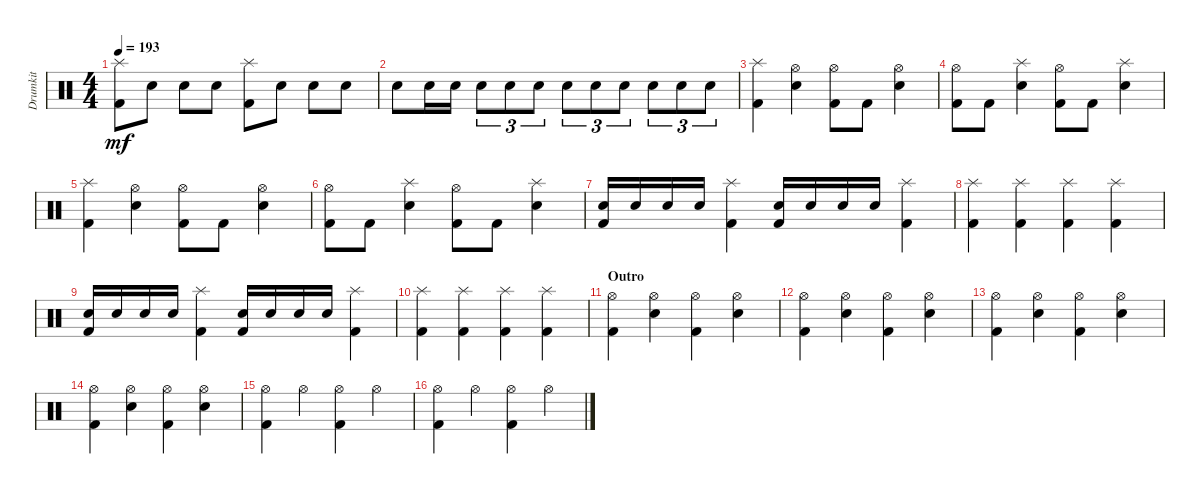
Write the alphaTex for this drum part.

\track ("Drumkit" "Drumkit") {instrument percussion}
\staff {score}
\articulation defaults
\ts (4 4)
\tempo 193
\clef neutral
\ks c
("Kick (hit) 2" "Splash (hit)").8{dy mf} "Snare (hit) 2".8 "Snare (hit) 2".8 "Snare (hit) 2".8 ("Kick (hit) 2" "Splash (hit)").8 "Snare (hit) 2".8 "Snare (hit) 2".8 "Snare (hit) 2".8 |
"Snare (hit) 2".8 "Snare (hit) 2".16 "Snare (hit) 2".16 "Snare (hit) 2".8{tu (3 2)} "Snare (hit) 2".8{tu (3 2)} "Snare (hit) 2".8{tu (3 2)} "Snare (hit) 2".8{tu (3 2)} "Snare (hit) 2".8{tu (3 2)} "Snare (hit) 2".8{tu (3 2)} "Snare (hit) 2".8{tu (3 2)} "Snare (hit) 2".8{tu (3 2)} "Snare (hit) 2".8{tu (3 2)} |
("Kick (hit) 2" "Splash (hit)").4 ("Snare (hit) 2" "Hi-Hat (open)").4 ("Kick (hit) 2" "Hi-Hat (open)").8 "Kick (hit) 2".8 ("Snare (hit) 2" "Hi-Hat (open)").4 |
("Kick (hit) 2" "Hi-Hat (open)").8 "Kick (hit) 2".8 ("Snare (hit) 2" "Splash (hit)").4 ("Kick (hit) 2" "Hi-Hat (open)").8 "Kick (hit) 2".8 ("Snare (hit) 2" "Splash (hit)").4 |
("Kick (hit) 2" "Splash (hit)").4 ("Snare (hit) 2" "Hi-Hat (open)").4 ("Kick (hit) 2" "Hi-Hat (open)").8 "Kick (hit) 2".8 ("Snare (hit) 2" "Hi-Hat (open)").4 |
("Kick (hit) 2" "Hi-Hat (open)").8 "Kick (hit) 2".8 ("Snare (hit) 2" "Splash (hit)").4 ("Kick (hit) 2" "Hi-Hat (open)").8 "Kick (hit) 2".8 ("Snare (hit) 2" "Splash (hit)").4 |
("Kick (hit) 2" "Snare (hit) 2").16 "Snare (hit) 2".16 "Snare (hit) 2".16 "Snare (hit) 2".16 ("Splash (hit)" "Kick (hit) 2").4 ("Kick (hit) 2" "Snare (hit) 2").16 "Snare (hit) 2".16 "Snare (hit) 2".16 "Snare (hit) 2".16 ("Splash (hit)" "Kick (hit) 2").4 |
("Kick (hit) 2" "Splash (hit)").4 ("Kick (hit) 2" "Splash (hit)").4 ("Kick (hit) 2" "Splash (hit)").4 ("Kick (hit) 2" "Splash (hit)").4 |
("Kick (hit) 2" "Snare (hit) 2").16 "Snare (hit) 2".16 "Snare (hit) 2".16 "Snare (hit) 2".16 ("Splash (hit)" "Kick (hit) 2").4 ("Kick (hit) 2" "Snare (hit) 2").16 "Snare (hit) 2".16 "Snare (hit) 2".16 "Snare (hit) 2".16 ("Splash (hit)" "Kick (hit) 2").4 |
("Kick (hit) 2" "Splash (hit)").4 ("Kick (hit) 2" "Splash (hit)").4 ("Kick (hit) 2" "Splash (hit)").4 ("Kick (hit) 2" "Splash (hit)").4 |
\section ("" "Outro")
("Kick (hit) 2" "Hi-Hat (open)").4 ("Snare (hit) 2" "Hi-Hat (open)").4 ("Kick (hit) 2" "Hi-Hat (open)").4 ("Snare (hit) 2" "Hi-Hat (open)").4 |
("Kick (hit) 2" "Hi-Hat (open)").4 ("Snare (hit) 2" "Hi-Hat (open)").4 ("Kick (hit) 2" "Hi-Hat (open)").4 ("Snare (hit) 2" "Hi-Hat (open)").4 |
("Kick (hit) 2" "Hi-Hat (open)").4 ("Snare (hit) 2" "Hi-Hat (open)").4 ("Kick (hit) 2" "Hi-Hat (open)").4 ("Snare (hit) 2" "Hi-Hat (open)").4 |
("Kick (hit) 2" "Hi-Hat (open)").4 ("Snare (hit) 2" "Hi-Hat (open)").4 ("Kick (hit) 2" "Hi-Hat (open)").4 ("Snare (hit) 2" "Hi-Hat (open)").4 |
("Hi-Hat (open)" "Kick (hit) 2").4 "Hi-Hat (open)".4 ("Hi-Hat (open)" "Kick (hit) 2").4 "Hi-Hat (open)".4 |
("Hi-Hat (open)" "Kick (hit) 2").4 "Hi-Hat (open)".4 ("Hi-Hat (open)" "Kick (hit) 2").4 "Hi-Hat (open)".4
